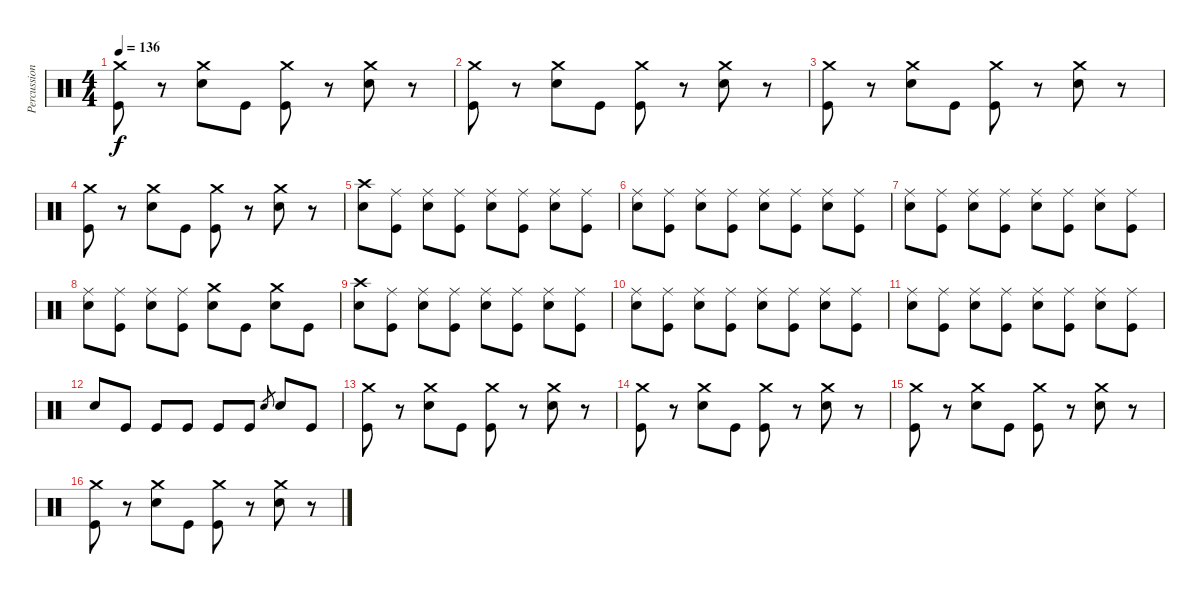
\track ("Percussion" "Percussion") {instrument percussion}
\staff {score}
\articulation defaults
\ts (4 4)
\tempo 136
\clef neutral
\ks c
("Crash medium (hit)" "Kick (hit)").8{dy f} r.8 ("Crash medium (hit)" "Electric Snare (hit)").8 "Kick (hit)".8 ("Crash medium (hit)" "Kick (hit)").8 r.8 ("Crash medium (hit)" "Electric Snare (hit)").8 r.8 |
("Crash medium (hit)" "Kick (hit)").8 r.8 ("Crash medium (hit)" "Electric Snare (hit)").8 "Kick (hit)".8 ("Crash medium (hit)" "Kick (hit)").8 r.8 ("Crash medium (hit)" "Electric Snare (hit)").8 r.8 |
("Crash medium (hit)" "Kick (hit)").8 r.8 ("Crash medium (hit)" "Electric Snare (hit)").8 "Kick (hit)".8 ("Crash medium (hit)" "Kick (hit)").8 r.8 ("Crash medium (hit)" "Electric Snare (hit)").8 r.8 |
("Crash medium (hit)" "Kick (hit)").8 r.8 ("Crash medium (hit)" "Electric Snare (hit)").8 "Kick (hit)".8 ("Crash medium (hit)" "Kick (hit)").8 r.8 ("Crash medium (hit)" "Electric Snare (hit)").8 r.8 |
("Crash high (hit)" "Electric Snare (hit)").8 ("Ride (middle)" "Kick (hit)").8 ("Ride (middle)" "Electric Snare (hit)").8 ("Ride (middle)" "Kick (hit)").8 ("Ride (middle)" "Electric Snare (hit)").8 ("Ride (middle)" "Kick (hit)").8 ("Ride (middle)" "Electric Snare (hit)").8 ("Ride (middle)" "Kick (hit)").8 |
("Ride (middle)" "Electric Snare (hit)").8 ("Ride (middle)" "Kick (hit)").8 ("Ride (middle)" "Electric Snare (hit)").8 ("Ride (middle)" "Kick (hit)").8 ("Ride (middle)" "Electric Snare (hit)").8 ("Ride (middle)" "Kick (hit)").8 ("Ride (middle)" "Electric Snare (hit)").8 ("Ride (middle)" "Kick (hit)").8 |
("Ride (middle)" "Electric Snare (hit)").8 ("Ride (middle)" "Kick (hit)").8 ("Ride (middle)" "Electric Snare (hit)").8 ("Ride (middle)" "Kick (hit)").8 ("Ride (middle)" "Electric Snare (hit)").8 ("Ride (middle)" "Kick (hit)").8 ("Ride (middle)" "Electric Snare (hit)").8 ("Ride (middle)" "Kick (hit)").8 |
("Ride (middle)" "Electric Snare (hit)").8 ("Ride (middle)" "Kick (hit)").8 ("Ride (middle)" "Electric Snare (hit)").8 ("Ride (middle)" "Kick (hit)").8 ("Crash medium (hit)" "Electric Snare (hit)").8 "Kick (hit)".8 ("Crash medium (hit)" "Electric Snare (hit)").8 "Kick (hit)".8 |
("Crash high (hit)" "Electric Snare (hit)").8 ("Ride (middle)" "Kick (hit)").8 ("Ride (middle)" "Electric Snare (hit)").8 ("Ride (middle)" "Kick (hit)").8 ("Ride (middle)" "Electric Snare (hit)").8 ("Ride (middle)" "Kick (hit)").8 ("Ride (middle)" "Electric Snare (hit)").8 ("Ride (middle)" "Kick (hit)").8 |
("Ride (middle)" "Electric Snare (hit)").8 ("Ride (middle)" "Kick (hit)").8 ("Ride (middle)" "Electric Snare (hit)").8 ("Ride (middle)" "Kick (hit)").8 ("Ride (middle)" "Electric Snare (hit)").8 ("Ride (middle)" "Kick (hit)").8 ("Ride (middle)" "Electric Snare (hit)").8 ("Ride (middle)" "Kick (hit)").8 |
("Ride (middle)" "Electric Snare (hit)").8 ("Ride (middle)" "Kick (hit)").8 ("Ride (middle)" "Electric Snare (hit)").8 ("Ride (middle)" "Kick (hit)").8 ("Ride (middle)" "Electric Snare (hit)").8 ("Ride (middle)" "Kick (hit)").8 ("Ride (middle)" "Electric Snare (hit)").8 ("Ride (middle)" "Kick (hit)").8 |
"Electric Snare (hit)".8 "Kick (hit)".8 "Kick (hit)".8 "Kick (hit)".8 "Kick (hit)".8 "Kick (hit)".8 "Electric Snare (hit)".8{gr} "Electric Snare (hit)".8 "Kick (hit)".8 |
("Crash medium (hit)" "Kick (hit)").8 r.8 ("Crash medium (hit)" "Electric Snare (hit)").8 "Kick (hit)".8 ("Crash medium (hit)" "Kick (hit)").8 r.8 ("Crash medium (hit)" "Electric Snare (hit)").8 r.8 |
("Crash medium (hit)" "Kick (hit)").8 r.8 ("Crash medium (hit)" "Electric Snare (hit)").8 "Kick (hit)".8 ("Crash medium (hit)" "Kick (hit)").8 r.8 ("Crash medium (hit)" "Electric Snare (hit)").8 r.8 |
("Crash medium (hit)" "Kick (hit)").8 r.8 ("Crash medium (hit)" "Electric Snare (hit)").8 "Kick (hit)".8 ("Crash medium (hit)" "Kick (hit)").8 r.8 ("Crash medium (hit)" "Electric Snare (hit)").8 r.8 |
("Crash medium (hit)" "Kick (hit)").8 r.8 ("Crash medium (hit)" "Electric Snare (hit)").8 "Kick (hit)".8 ("Crash medium (hit)" "Kick (hit)").8 r.8 ("Crash medium (hit)" "Electric Snare (hit)").8 r.8
